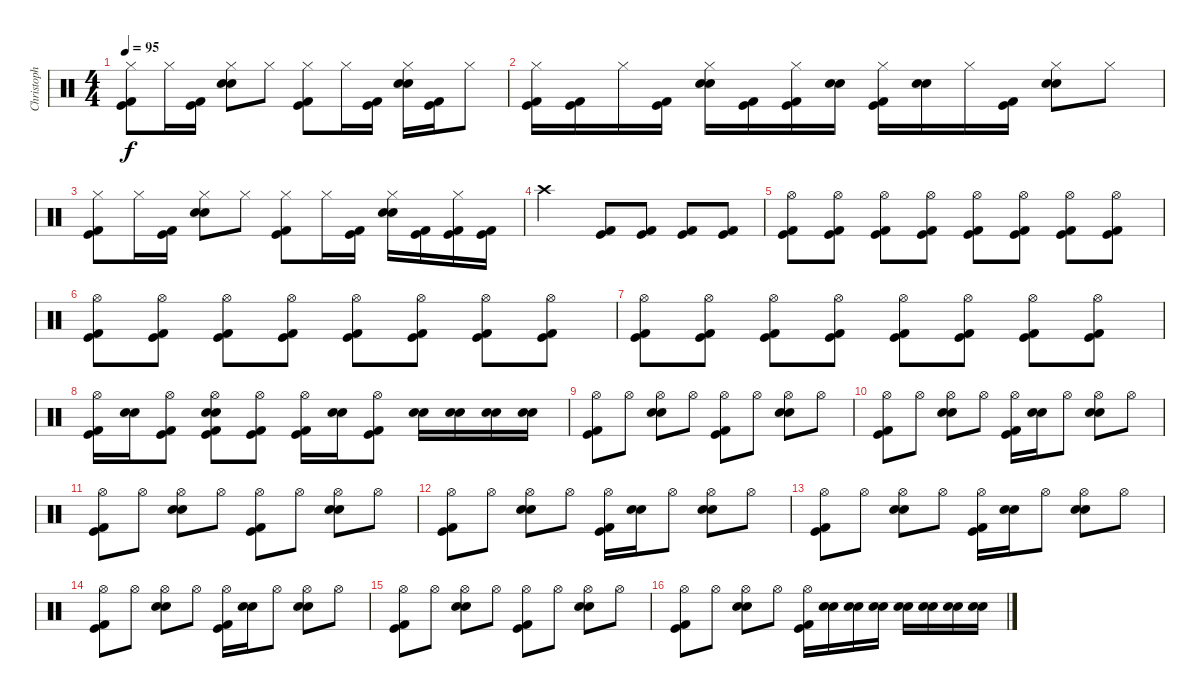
\track ("Christoph" "Christoph") {instrument percussion}
\staff {score}
\articulation defaults
\ts (4 4)
\tempo 95
\clef neutral
\ks c
("Hi-Hat (closed)" "Kick (hit)" "Kick (hit) 2").8{dy f} "Hi-Hat (closed)".16 ("Kick (hit)" "Kick (hit) 2").16 ("Hi-Hat (closed)" "Snare (hit) 2" "Electric Snare (hit)").8 "Hi-Hat (closed)".8 ("Hi-Hat (closed)" "Kick (hit)" "Kick (hit) 2").8 "Hi-Hat (closed)".16 ("Kick (hit)" "Kick (hit) 2").16 ("Hi-Hat (closed)" "Snare (hit) 2" "Electric Snare (hit)").16 ("Kick (hit)" "Kick (hit) 2").16 "Hi-Hat (closed)".8 |
("Hi-Hat (closed)" "Kick (hit)" "Kick (hit) 2").16 ("Kick (hit)" "Kick (hit) 2").16 "Hi-Hat (closed)".16 ("Kick (hit)" "Kick (hit) 2").16 ("Hi-Hat (closed)" "Snare (hit) 2" "Electric Snare (hit)").16 ("Kick (hit)" "Kick (hit) 2").16 ("Hi-Hat (closed)" "Kick (hit)" "Kick (hit) 2").16 ("Snare (hit) 2" "Electric Snare (hit)").16 ("Hi-Hat (closed)" "Kick (hit)" "Kick (hit) 2").16 ("Snare (hit) 2" "Electric Snare (hit)").16 "Hi-Hat (closed)".16 ("Kick (hit)" "Kick (hit) 2").16 ("Hi-Hat (closed)" "Snare (hit) 2" "Electric Snare (hit)").8 "Hi-Hat (closed)".8 |
("Hi-Hat (closed)" "Kick (hit)" "Kick (hit) 2").8 "Hi-Hat (closed)".16 ("Kick (hit)" "Kick (hit) 2").16 ("Hi-Hat (closed)" "Snare (hit) 2" "Electric Snare (hit)").8 "Hi-Hat (closed)".8 ("Hi-Hat (closed)" "Kick (hit)" "Kick (hit) 2").8 "Hi-Hat (closed)".16 ("Kick (hit)" "Kick (hit) 2").16 ("Hi-Hat (closed)" "Snare (hit) 2" "Electric Snare (hit)").16 ("Kick (hit)" "Kick (hit) 2").16 ("Hi-Hat (closed)" "Kick (hit)" "Kick (hit) 2").16 ("Kick (hit)" "Kick (hit) 2").16 |
"Crash high (hit)".2 ("Kick (hit)" "Kick (hit) 2").8 ("Kick (hit)" "Kick (hit) 2").8 ("Kick (hit)" "Kick (hit) 2").8 ("Kick (hit)" "Kick (hit) 2").8 |
("Hi-Hat (open)" "Kick (hit)" "Kick (hit) 2").8 ("Hi-Hat (open)" "Kick (hit)" "Kick (hit) 2").8 ("Hi-Hat (open)" "Kick (hit)" "Kick (hit) 2").8 ("Hi-Hat (open)" "Kick (hit)" "Kick (hit) 2").8 ("Hi-Hat (open)" "Kick (hit)" "Kick (hit) 2").8 ("Hi-Hat (open)" "Kick (hit)" "Kick (hit) 2").8 ("Hi-Hat (open)" "Kick (hit)" "Kick (hit) 2").8 ("Hi-Hat (open)" "Kick (hit)" "Kick (hit) 2").8 |
("Hi-Hat (open)" "Kick (hit)" "Kick (hit) 2").8 ("Hi-Hat (open)" "Kick (hit)" "Kick (hit) 2").8 ("Hi-Hat (open)" "Kick (hit)" "Kick (hit) 2").8 ("Hi-Hat (open)" "Kick (hit)" "Kick (hit) 2").8 ("Hi-Hat (open)" "Kick (hit)" "Kick (hit) 2").8 ("Hi-Hat (open)" "Kick (hit)" "Kick (hit) 2").8 ("Hi-Hat (open)" "Kick (hit)" "Kick (hit) 2").8 ("Hi-Hat (open)" "Kick (hit)" "Kick (hit) 2").8 |
("Hi-Hat (open)" "Kick (hit)" "Kick (hit) 2").8 ("Hi-Hat (open)" "Kick (hit)" "Kick (hit) 2").8 ("Hi-Hat (open)" "Kick (hit)" "Kick (hit) 2").8 ("Hi-Hat (open)" "Kick (hit)" "Kick (hit) 2").8 ("Hi-Hat (open)" "Kick (hit)" "Kick (hit) 2").8 ("Hi-Hat (open)" "Kick (hit)" "Kick (hit) 2").8 ("Hi-Hat (open)" "Kick (hit)" "Kick (hit) 2").8 ("Hi-Hat (open)" "Kick (hit)" "Kick (hit) 2").8 |
("Hi-Hat (open)" "Kick (hit)" "Kick (hit) 2").16 ("Electric Snare (hit)" "Snare (hit) 2").16 ("Hi-Hat (open)" "Kick (hit)" "Kick (hit) 2").8 ("Hi-Hat (open)" "Electric Snare (hit)" "Snare (hit) 2" "Kick (hit)" "Kick (hit) 2").8 ("Hi-Hat (open)" "Kick (hit)" "Kick (hit) 2").8 ("Hi-Hat (open)" "Kick (hit)" "Kick (hit) 2").16 ("Electric Snare (hit)" "Snare (hit) 2").16 ("Hi-Hat (open)" "Kick (hit)" "Kick (hit) 2").8 ("Electric Snare (hit)" "Snare (hit) 2").16 ("Electric Snare (hit)" "Snare (hit) 2").16 ("Electric Snare (hit)" "Snare (hit) 2").16 ("Electric Snare (hit)" "Snare (hit) 2").16 |
("Hi-Hat (open)" "Kick (hit)" "Kick (hit) 2").8 "Hi-Hat (open)".8 ("Hi-Hat (open)" "Electric Snare (hit)" "Snare (hit) 2").8 "Hi-Hat (open)".8 ("Hi-Hat (open)" "Kick (hit)" "Kick (hit) 2").8 "Hi-Hat (open)".8 ("Hi-Hat (open)" "Electric Snare (hit)" "Snare (hit) 2").8 "Hi-Hat (open)".8 |
("Hi-Hat (open)" "Kick (hit) 2" "Kick (hit)").8 "Hi-Hat (open)".8 ("Hi-Hat (open)" "Electric Snare (hit)" "Snare (hit) 2").8 "Hi-Hat (open)".8 ("Hi-Hat (open)" "Kick (hit)" "Kick (hit) 2").16 ("Electric Snare (hit)" "Snare (hit) 2").16 "Hi-Hat (open)".8 ("Hi-Hat (open)" "Electric Snare (hit)" "Snare (hit) 2").8 "Hi-Hat (open)".8 |
("Hi-Hat (open)" "Kick (hit)" "Kick (hit) 2").8 "Hi-Hat (open)".8 ("Hi-Hat (open)" "Electric Snare (hit)" "Snare (hit) 2").8 "Hi-Hat (open)".8 ("Hi-Hat (open)" "Kick (hit)" "Kick (hit) 2").8 "Hi-Hat (open)".8 ("Hi-Hat (open)" "Electric Snare (hit)" "Snare (hit) 2").8 "Hi-Hat (open)".8 |
("Hi-Hat (open)" "Kick (hit) 2" "Kick (hit)").8 "Hi-Hat (open)".8 ("Hi-Hat (open)" "Electric Snare (hit)" "Snare (hit) 2").8 "Hi-Hat (open)".8 ("Hi-Hat (open)" "Kick (hit)" "Kick (hit) 2").16 ("Electric Snare (hit)" "Snare (hit) 2").16 "Hi-Hat (open)".8 ("Hi-Hat (open)" "Electric Snare (hit)" "Snare (hit) 2").8 "Hi-Hat (open)".8 |
("Hi-Hat (open)" "Kick (hit) 2" "Kick (hit)").8 "Hi-Hat (open)".8 ("Hi-Hat (open)" "Electric Snare (hit)" "Snare (hit) 2").8 "Hi-Hat (open)".8 ("Hi-Hat (open)" "Kick (hit)" "Kick (hit) 2").16 ("Electric Snare (hit)" "Snare (hit) 2").16 "Hi-Hat (open)".8 ("Hi-Hat (open)" "Electric Snare (hit)" "Snare (hit) 2").8 "Hi-Hat (open)".8 |
("Hi-Hat (open)" "Kick (hit) 2" "Kick (hit)").8 "Hi-Hat (open)".8 ("Hi-Hat (open)" "Electric Snare (hit)" "Snare (hit) 2").8 "Hi-Hat (open)".8 ("Hi-Hat (open)" "Kick (hit)" "Kick (hit) 2").16 ("Electric Snare (hit)" "Snare (hit) 2").16 "Hi-Hat (open)".8 ("Hi-Hat (open)" "Electric Snare (hit)" "Snare (hit) 2").8 "Hi-Hat (open)".8 |
("Hi-Hat (open)" "Kick (hit)" "Kick (hit) 2").8 "Hi-Hat (open)".8 ("Hi-Hat (open)" "Electric Snare (hit)" "Snare (hit) 2").8 "Hi-Hat (open)".8 ("Hi-Hat (open)" "Kick (hit)" "Kick (hit) 2").8 "Hi-Hat (open)".8 ("Hi-Hat (open)" "Electric Snare (hit)" "Snare (hit) 2").8 "Hi-Hat (open)".8 |
("Hi-Hat (open)" "Kick (hit) 2" "Kick (hit)").8 "Hi-Hat (open)".8 ("Hi-Hat (open)" "Electric Snare (hit)" "Snare (hit) 2").8 "Hi-Hat (open)".8 ("Hi-Hat (open)" "Kick (hit)" "Kick (hit) 2").16 ("Electric Snare (hit)" "Snare (hit) 2").16 ("Electric Snare (hit)" "Snare (hit) 2").16 ("Electric Snare (hit)" "Snare (hit) 2").16 ("Electric Snare (hit)" "Snare (hit) 2").16 ("Electric Snare (hit)" "Snare (hit) 2").16 ("Electric Snare (hit)" "Snare (hit) 2").16 ("Electric Snare (hit)" "Snare (hit) 2").16
